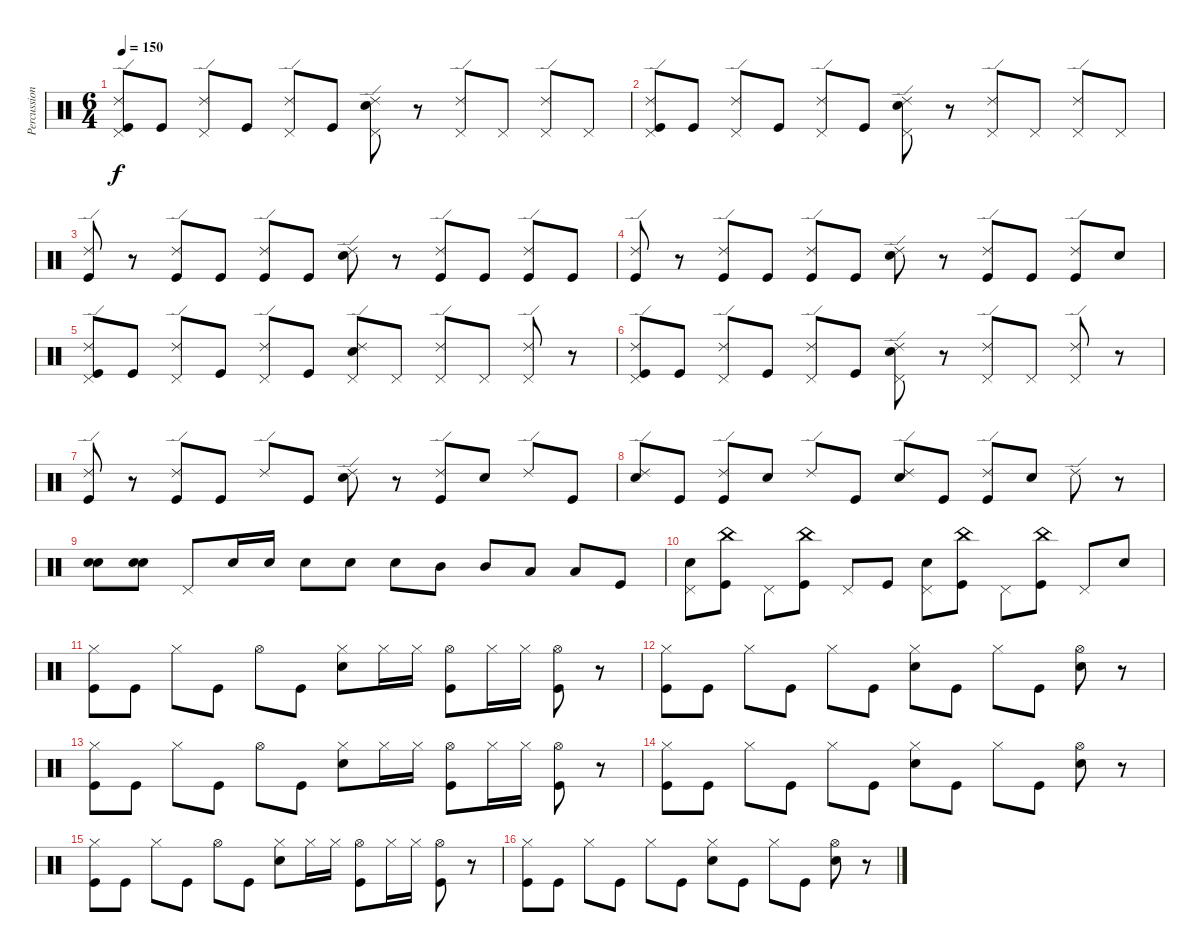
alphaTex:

\track ("Percussion" "Percussion") {instrument percussion}
\staff {score}
\articulation defaults
\ts (6 4)
\tempo 150
\clef neutral
\ks c
("Ride (edge) 2" "Pedal Hi-Hat (hit)" "Kick (hit)").8{dy f} "Kick (hit)".8 ("Ride (edge) 2" "Pedal Hi-Hat (hit)").8 "Kick (hit)".8 ("Ride (edge) 2" "Pedal Hi-Hat (hit)").8 "Kick (hit)".8 ("Ride (edge) 2" "Pedal Hi-Hat (hit)" "Snare (hit) 2").8 r.8 ("Ride (edge) 2" "Pedal Hi-Hat (hit)").8 "Pedal Hi-Hat (hit)".8 ("Ride (edge) 2" "Pedal Hi-Hat (hit)").8 "Pedal Hi-Hat (hit)".8 |
("Ride (edge) 2" "Pedal Hi-Hat (hit)" "Kick (hit)").8 "Kick (hit)".8 ("Ride (edge) 2" "Pedal Hi-Hat (hit)").8 "Kick (hit)".8 ("Ride (edge) 2" "Pedal Hi-Hat (hit)").8 "Kick (hit)".8 ("Ride (edge) 2" "Pedal Hi-Hat (hit)" "Snare (hit) 2").8 r.8 ("Ride (edge) 2" "Pedal Hi-Hat (hit)").8 "Pedal Hi-Hat (hit)".8 ("Ride (edge) 2" "Pedal Hi-Hat (hit)").8 "Pedal Hi-Hat (hit)".8 |
("Ride (edge) 2" "Kick (hit)").8 r.8 ("Ride (edge) 2" "Kick (hit)").8 "Kick (hit)".8 ("Ride (edge) 2" "Kick (hit)").8 "Kick (hit)".8 ("Ride (edge) 2" "Snare (hit) 2").8 r.8 ("Ride (edge) 2" "Kick (hit)").8 "Kick (hit)".8 ("Ride (edge) 2" "Kick (hit)").8 "Kick (hit)".8 |
("Ride (edge) 2" "Kick (hit)").8 r.8 ("Ride (edge) 2" "Kick (hit)").8 "Kick (hit)".8 ("Ride (edge) 2" "Kick (hit)").8 "Kick (hit)".8 ("Ride (edge) 2" "Snare (hit) 2").8 r.8 ("Ride (edge) 2" "Kick (hit)").8 "Kick (hit)".8 ("Ride (edge) 2" "Kick (hit)").8 "Snare (hit) 2".8 |
("Ride (edge) 2" "Pedal Hi-Hat (hit)" "Kick (hit)").8 "Kick (hit)".8 ("Ride (edge) 2" "Pedal Hi-Hat (hit)").8 "Kick (hit)".8 ("Ride (edge) 2" "Pedal Hi-Hat (hit)").8 "Kick (hit)".8 ("Ride (edge) 2" "Pedal Hi-Hat (hit)" "Snare (hit) 2").8 "Pedal Hi-Hat (hit)".8 ("Ride (edge) 2" "Pedal Hi-Hat (hit)").8 "Pedal Hi-Hat (hit)".8 ("Ride (edge) 2" "Pedal Hi-Hat (hit)").8 r.8 |
("Ride (edge) 2" "Pedal Hi-Hat (hit)" "Kick (hit)").8 "Kick (hit)".8 ("Ride (edge) 2" "Pedal Hi-Hat (hit)").8 "Kick (hit)".8 ("Ride (edge) 2" "Pedal Hi-Hat (hit)").8 "Kick (hit)".8 ("Ride (edge) 2" "Pedal Hi-Hat (hit)" "Snare (hit) 2").8 r.8 ("Ride (edge) 2" "Pedal Hi-Hat (hit)").8 "Pedal Hi-Hat (hit)".8 ("Ride (edge) 2" "Pedal Hi-Hat (hit)").8 r.8 |
("Ride (edge) 2" "Kick (hit)").8 r.8 ("Ride (edge) 2" "Kick (hit)").8 "Kick (hit)".8 "Ride (edge) 2".8 "Kick (hit)".8 ("Ride (edge) 2" "Snare (hit) 2").8 r.8 ("Ride (edge) 2" "Kick (hit)").8 "Snare (hit) 2".8 "Ride (edge) 2".8 "Kick (hit)".8 |
("Ride (edge) 2" "Snare (hit) 2").8 "Kick (hit)".8 ("Ride (edge) 2" "Kick (hit)").8 "Snare (hit) 2".8 "Ride (edge) 2".8 "Kick (hit)".8 ("Ride (edge) 2" "Snare (hit) 2").8 "Kick (hit)".8 ("Ride (edge) 2" "Kick (hit)").8 "Snare (hit) 2".8 "Ride (edge) 2".8 r.8 |
("Snare (hit) 2" "Snare (hit) 2").8 ("Snare (hit) 2" "Snare (hit) 2").8 "Pedal Hi-Hat (hit)".8 "Snare (hit) 2".16 "Snare (hit) 2".16 "Snare (hit) 2".8 "Snare (hit) 2".8 "Snare (hit) 2".8 "Mid Tom (hit)".8 "Mid Tom (hit)".8 "Low Tom (hit)".8 "Low Floor Tom (hit)".8 "Kick (hit)".8 |
("Pedal Hi-Hat (hit)" "Snare (hit) 2").8 ("China (hit)" "Kick (hit)").8 "Pedal Hi-Hat (hit)".8 ("China (hit)" "Kick (hit)").8 "Pedal Hi-Hat (hit)".8 "Kick (hit)".8 ("Pedal Hi-Hat (hit)" "Snare (hit) 2").8 ("China (hit)" "Kick (hit)").8 "Pedal Hi-Hat (hit)".8 ("China (hit)" "Kick (hit)").8 "Pedal Hi-Hat (hit)".8 "Snare (hit) 2".8 |
("Hi-Hat (closed)" "Kick (hit)").8 "Kick (hit)".8 "Hi-Hat (closed)".8 "Kick (hit)".8 "Hi-Hat (open)".8 "Kick (hit)".8 ("Hi-Hat (closed)" "Snare (hit) 2").8 "Hi-Hat (closed)".16 "Hi-Hat (closed)".16 ("Hi-Hat (open)" "Kick (hit)").8 "Hi-Hat (closed)".16 "Hi-Hat (closed)".16 ("Hi-Hat (open)" "Kick (hit)").8 r.8 |
("Hi-Hat (closed)" "Kick (hit)").8 "Kick (hit)".8 "Hi-Hat (closed)".8 "Kick (hit)".8 "Hi-Hat (closed)".8 "Kick (hit)".8 ("Hi-Hat (closed)" "Snare (hit) 2").8 "Kick (hit)".8 "Hi-Hat (closed)".8 "Kick (hit)".8 ("Hi-Hat (open)" "Snare (hit) 2").8 r.8 |
("Hi-Hat (closed)" "Kick (hit)").8 "Kick (hit)".8 "Hi-Hat (closed)".8 "Kick (hit)".8 "Hi-Hat (open)".8 "Kick (hit)".8 ("Hi-Hat (closed)" "Snare (hit) 2").8 "Hi-Hat (closed)".16 "Hi-Hat (closed)".16 ("Hi-Hat (open)" "Kick (hit)").8 "Hi-Hat (closed)".16 "Hi-Hat (closed)".16 ("Hi-Hat (open)" "Kick (hit)").8 r.8 |
("Hi-Hat (closed)" "Kick (hit)").8 "Kick (hit)".8 "Hi-Hat (closed)".8 "Kick (hit)".8 "Hi-Hat (closed)".8 "Kick (hit)".8 ("Hi-Hat (closed)" "Snare (hit) 2").8 "Kick (hit)".8 "Hi-Hat (closed)".8 "Kick (hit)".8 ("Hi-Hat (open)" "Snare (hit) 2").8 r.8 |
("Hi-Hat (closed)" "Kick (hit)").8 "Kick (hit)".8 "Hi-Hat (closed)".8 "Kick (hit)".8 "Hi-Hat (open)".8 "Kick (hit)".8 ("Hi-Hat (closed)" "Snare (hit) 2").8 "Hi-Hat (closed)".16 "Hi-Hat (closed)".16 ("Hi-Hat (open)" "Kick (hit)").8 "Hi-Hat (closed)".16 "Hi-Hat (closed)".16 ("Hi-Hat (open)" "Kick (hit)").8 r.8 |
("Hi-Hat (closed)" "Kick (hit)").8 "Kick (hit)".8 "Hi-Hat (closed)".8 "Kick (hit)".8 "Hi-Hat (closed)".8 "Kick (hit)".8 ("Hi-Hat (closed)" "Snare (hit) 2").8 "Kick (hit)".8 "Hi-Hat (closed)".8 "Kick (hit)".8 ("Hi-Hat (open)" "Snare (hit) 2").8 r.8
